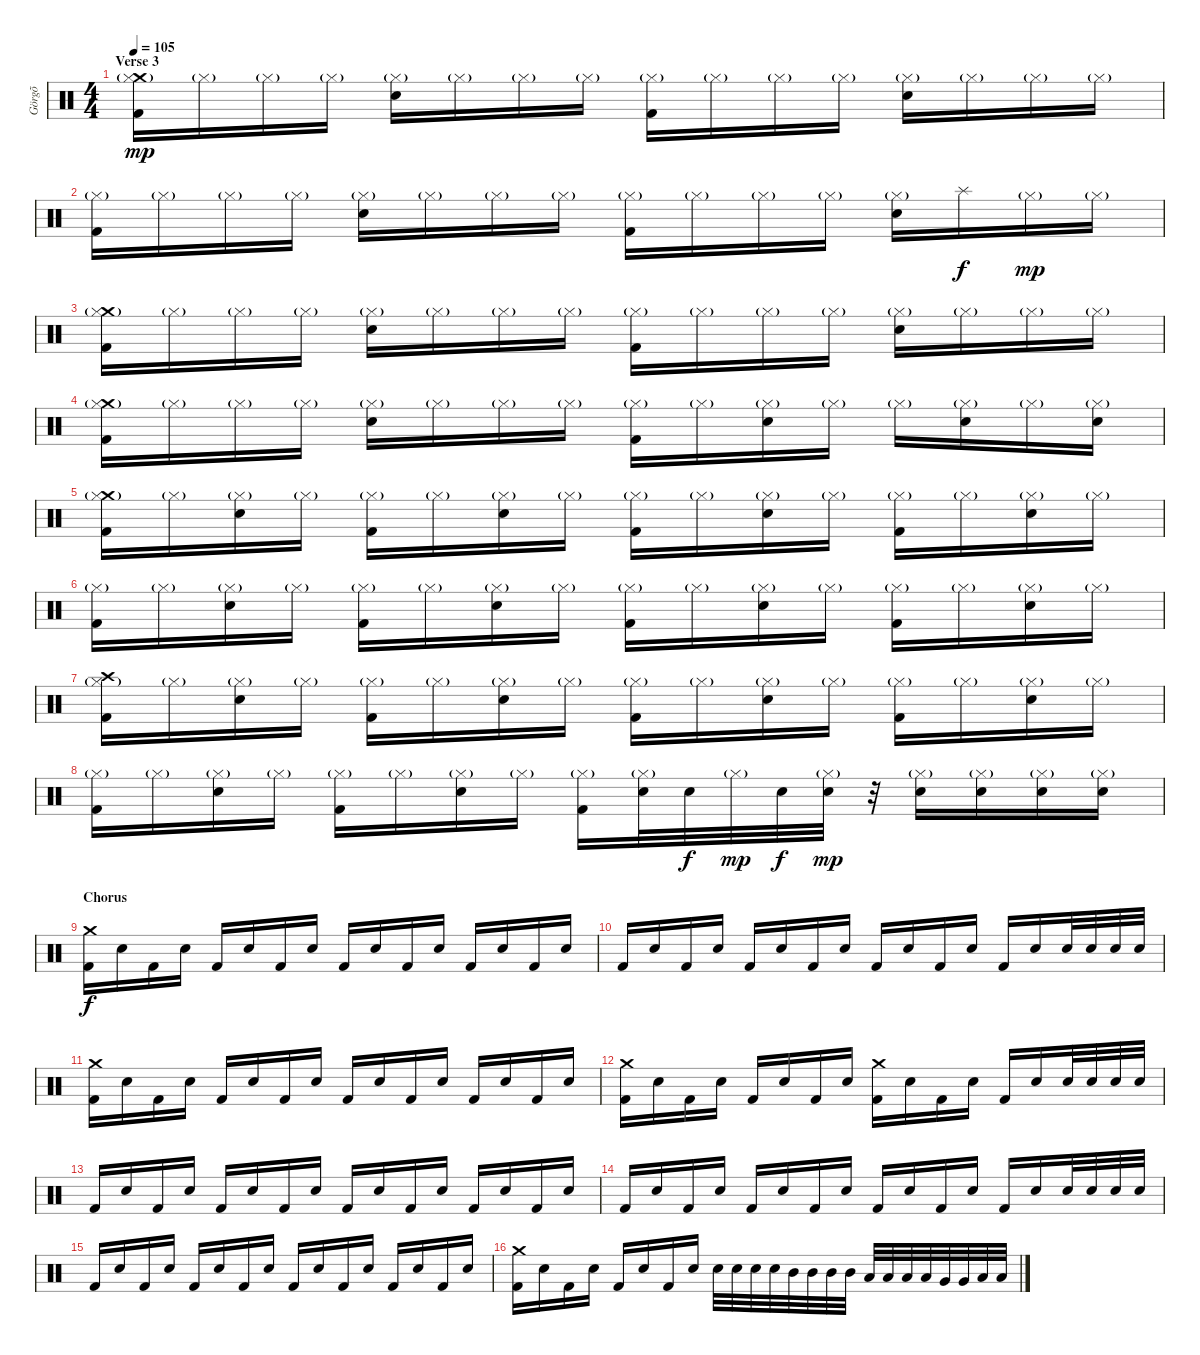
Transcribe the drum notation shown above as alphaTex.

\track ("Görgõ" "Görgõ") {instrument percussion}
\staff {score}
\articulation defaults
\ts (4 4)
\section ("" "Verse 3")
\tempo 105
\clef neutral
\ks c
("Crash medium (hit)" "Hi-Hat (closed)"{g} "Kick (hit) 2").16{dy mp} "Hi-Hat (closed)"{g}.16 "Hi-Hat (closed)"{g}.16 "Hi-Hat (closed)"{g}.16 ("Hi-Hat (closed)"{g} "Snare (hit) 2").16 "Hi-Hat (closed)"{g}.16 "Hi-Hat (closed)"{g}.16 "Hi-Hat (closed)"{g}.16 ("Hi-Hat (closed)"{g} "Kick (hit) 2").16 "Hi-Hat (closed)"{g}.16 "Hi-Hat (closed)"{g}.16 "Hi-Hat (closed)"{g}.16 ("Hi-Hat (closed)"{g} "Snare (hit) 2").16 "Hi-Hat (closed)"{g}.16 "Hi-Hat (closed)"{g}.16 "Hi-Hat (closed)"{g}.16 |
("Hi-Hat (closed)"{g} "Kick (hit) 2").16 "Hi-Hat (closed)"{g}.16 "Hi-Hat (closed)"{g}.16 "Hi-Hat (closed)"{g}.16 ("Hi-Hat (closed)"{g} "Snare (hit) 2").16 "Hi-Hat (closed)"{g}.16 "Hi-Hat (closed)"{g}.16 "Hi-Hat (closed)"{g}.16 ("Hi-Hat (closed)"{g} "Kick (hit) 2").16 "Hi-Hat (closed)"{g}.16 "Hi-Hat (closed)"{g}.16 "Hi-Hat (closed)"{g}.16 ("Hi-Hat (closed)"{g} "Snare (hit) 2").16 "Splash (hit)".16{dy f} "Hi-Hat (closed)"{g}.16{dy mp} "Hi-Hat (closed)"{g}.16 |
("Crash medium (hit)" "Hi-Hat (closed)"{g} "Kick (hit) 2").16 "Hi-Hat (closed)"{g}.16 "Hi-Hat (closed)"{g}.16 "Hi-Hat (closed)"{g}.16 ("Hi-Hat (closed)"{g} "Snare (hit) 2").16 "Hi-Hat (closed)"{g}.16 "Hi-Hat (closed)"{g}.16 "Hi-Hat (closed)"{g}.16 ("Hi-Hat (closed)"{g} "Kick (hit) 2").16 "Hi-Hat (closed)"{g}.16 "Hi-Hat (closed)"{g}.16 "Hi-Hat (closed)"{g}.16 ("Hi-Hat (closed)"{g} "Snare (hit) 2").16 "Hi-Hat (closed)"{g}.16 "Hi-Hat (closed)"{g}.16 "Hi-Hat (closed)"{g}.16 |
("Crash medium (hit)" "Hi-Hat (closed)"{g} "Kick (hit) 2").16 "Hi-Hat (closed)"{g}.16 "Hi-Hat (closed)"{g}.16 "Hi-Hat (closed)"{g}.16 ("Hi-Hat (closed)"{g} "Snare (hit) 2").16 "Hi-Hat (closed)"{g}.16 "Hi-Hat (closed)"{g}.16 "Hi-Hat (closed)"{g}.16 ("Hi-Hat (closed)"{g} "Kick (hit) 2").16 "Hi-Hat (closed)"{g}.16 ("Hi-Hat (closed)"{g} "Snare (hit) 2").16 "Hi-Hat (closed)"{g}.16 "Hi-Hat (closed)"{g}.16 ("Hi-Hat (closed)"{g} "Snare (hit) 2").16 "Hi-Hat (closed)"{g}.16 ("Hi-Hat (closed)"{g} "Snare (hit) 2").16 |
("Crash medium (hit)" "Hi-Hat (closed)"{g} "Kick (hit) 2").16 "Hi-Hat (closed)"{g}.16 ("Hi-Hat (closed)"{g} "Snare (hit) 2").16 "Hi-Hat (closed)"{g}.16 ("Hi-Hat (closed)"{g} "Kick (hit) 2").16 "Hi-Hat (closed)"{g}.16 ("Hi-Hat (closed)"{g} "Snare (hit) 2").16 "Hi-Hat (closed)"{g}.16 ("Hi-Hat (closed)"{g} "Kick (hit) 2").16 "Hi-Hat (closed)"{g}.16 ("Hi-Hat (closed)"{g} "Snare (hit) 2").16 "Hi-Hat (closed)"{g}.16 ("Hi-Hat (closed)"{g} "Kick (hit) 2").16 "Hi-Hat (closed)"{g}.16 ("Hi-Hat (closed)"{g} "Snare (hit) 2").16 "Hi-Hat (closed)"{g}.16 |
("Hi-Hat (closed)"{g} "Kick (hit) 2").16 "Hi-Hat (closed)"{g}.16 ("Hi-Hat (closed)"{g} "Snare (hit) 2").16 "Hi-Hat (closed)"{g}.16 ("Hi-Hat (closed)"{g} "Kick (hit) 2").16 "Hi-Hat (closed)"{g}.16 ("Hi-Hat (closed)"{g} "Snare (hit) 2").16 "Hi-Hat (closed)"{g}.16 ("Hi-Hat (closed)"{g} "Kick (hit) 2").16 "Hi-Hat (closed)"{g}.16 ("Hi-Hat (closed)"{g} "Snare (hit) 2").16 "Hi-Hat (closed)"{g}.16 ("Hi-Hat (closed)"{g} "Kick (hit) 2").16 "Hi-Hat (closed)"{g}.16 ("Hi-Hat (closed)"{g} "Snare (hit) 2").16 "Hi-Hat (closed)"{g}.16 |
("Crash high (hit)" "Hi-Hat (closed)"{g} "Kick (hit) 2").16 "Hi-Hat (closed)"{g}.16 ("Hi-Hat (closed)"{g} "Snare (hit) 2").16 "Hi-Hat (closed)"{g}.16 ("Hi-Hat (closed)"{g} "Kick (hit) 2").16 "Hi-Hat (closed)"{g}.16 ("Hi-Hat (closed)"{g} "Snare (hit) 2").16 "Hi-Hat (closed)"{g}.16 ("Hi-Hat (closed)"{g} "Kick (hit) 2").16 "Hi-Hat (closed)"{g}.16 ("Hi-Hat (closed)"{g} "Snare (hit) 2").16 "Hi-Hat (closed)"{g}.16 ("Hi-Hat (closed)"{g} "Kick (hit) 2").16 "Hi-Hat (closed)"{g}.16 ("Hi-Hat (closed)"{g} "Snare (hit) 2").16 "Hi-Hat (closed)"{g}.16 |
("Hi-Hat (closed)"{g} "Kick (hit) 2").16 "Hi-Hat (closed)"{g}.16 ("Hi-Hat (closed)"{g} "Snare (hit) 2").16 "Hi-Hat (closed)"{g}.16 ("Hi-Hat (closed)"{g} "Kick (hit) 2").16 "Hi-Hat (closed)"{g}.16 ("Hi-Hat (closed)"{g} "Snare (hit) 2").16 "Hi-Hat (closed)"{g}.16 ("Hi-Hat (closed)"{g} "Kick (hit) 2").16 ("Hi-Hat (closed)"{g} "Snare (hit) 2").32 "Snare (hit) 2".32{dy f} "Hi-Hat (closed)"{g}.32{dy mp} "Snare (hit) 2".32{dy f} ("Hi-Hat (closed)"{g} "Snare (hit) 2").32{dy mp} r.32 ("Hi-Hat (closed)"{g} "Snare (hit) 2").16 ("Hi-Hat (closed)"{g} "Snare (hit) 2").16 ("Hi-Hat (closed)"{g} "Snare (hit) 2").16 ("Hi-Hat (closed)"{g} "Snare (hit) 2").16 |
\section ("" "Chorus")
("Crash medium (hit)" "Kick (hit) 2").16{dy f} "Snare (hit) 2".16 "Kick (hit) 2".16 "Snare (hit) 2".16 "Kick (hit) 2".16 "Snare (hit) 2".16 "Kick (hit) 2".16 "Snare (hit) 2".16 "Kick (hit) 2".16 "Snare (hit) 2".16 "Kick (hit) 2".16 "Snare (hit) 2".16 "Kick (hit) 2".16 "Snare (hit) 2".16 "Kick (hit) 2".16 "Snare (hit) 2".16 |
"Kick (hit) 2".16 "Snare (hit) 2".16 "Kick (hit) 2".16 "Snare (hit) 2".16 "Kick (hit) 2".16 "Snare (hit) 2".16 "Kick (hit) 2".16 "Snare (hit) 2".16 "Kick (hit) 2".16 "Snare (hit) 2".16 "Kick (hit) 2".16 "Snare (hit) 2".16 "Kick (hit) 2".16 "Snare (hit) 2".16 "Snare (hit) 2".32 "Snare (hit) 2".32 "Snare (hit) 2".32 "Snare (hit) 2".32 |
("Crash medium (hit)" "Kick (hit) 2").16 "Snare (hit) 2".16 "Kick (hit) 2".16 "Snare (hit) 2".16 "Kick (hit) 2".16 "Snare (hit) 2".16 "Kick (hit) 2".16 "Snare (hit) 2".16 "Kick (hit) 2".16 "Snare (hit) 2".16 "Kick (hit) 2".16 "Snare (hit) 2".16 "Kick (hit) 2".16 "Snare (hit) 2".16 "Kick (hit) 2".16 "Snare (hit) 2".16 |
("Crash medium (hit)" "Kick (hit) 2").16 "Snare (hit) 2".16 "Kick (hit) 2".16 "Snare (hit) 2".16 "Kick (hit) 2".16 "Snare (hit) 2".16 "Kick (hit) 2".16 "Snare (hit) 2".16 ("Crash medium (hit)" "Kick (hit) 2").16 "Snare (hit) 2".16 "Kick (hit) 2".16 "Snare (hit) 2".16 "Kick (hit) 2".16 "Snare (hit) 2".16 "Snare (hit) 2".32 "Snare (hit) 2".32 "Snare (hit) 2".32 "Snare (hit) 2".32 |
"Kick (hit) 2".16 "Snare (hit) 2".16 "Kick (hit) 2".16 "Snare (hit) 2".16 "Kick (hit) 2".16 "Snare (hit) 2".16 "Kick (hit) 2".16 "Snare (hit) 2".16 "Kick (hit) 2".16 "Snare (hit) 2".16 "Kick (hit) 2".16 "Snare (hit) 2".16 "Kick (hit) 2".16 "Snare (hit) 2".16 "Kick (hit) 2".16 "Snare (hit) 2".16 |
"Kick (hit) 2".16 "Snare (hit) 2".16 "Kick (hit) 2".16 "Snare (hit) 2".16 "Kick (hit) 2".16 "Snare (hit) 2".16 "Kick (hit) 2".16 "Snare (hit) 2".16 "Kick (hit) 2".16 "Snare (hit) 2".16 "Kick (hit) 2".16 "Snare (hit) 2".16 "Kick (hit) 2".16 "Snare (hit) 2".16 "Snare (hit) 2".32 "Snare (hit) 2".32 "Snare (hit) 2".32 "Snare (hit) 2".32 |
"Kick (hit) 2".16 "Snare (hit) 2".16 "Kick (hit) 2".16 "Snare (hit) 2".16 "Kick (hit) 2".16 "Snare (hit) 2".16 "Kick (hit) 2".16 "Snare (hit) 2".16 "Kick (hit) 2".16 "Snare (hit) 2".16 "Kick (hit) 2".16 "Snare (hit) 2".16 "Kick (hit) 2".16 "Snare (hit) 2".16 "Kick (hit) 2".16 "Snare (hit) 2".16 |
("Crash medium (hit)" "Kick (hit) 2").16 "Snare (hit) 2".16 "Kick (hit) 2".16 "Snare (hit) 2".16 "Kick (hit) 2".16 "Snare (hit) 2".16 "Kick (hit) 2".16 "Snare (hit) 2".16 "Snare (hit) 2".32 "Snare (hit) 2".32 "Snare (hit) 2".32 "Snare (hit) 2".32 "Mid Tom (hit)".32 "Mid Tom (hit)".32 "Mid Tom (hit)".32 "Mid Tom (hit)".32 "Low Tom (hit)".32 "Low Tom (hit)".32 "Low Tom (hit)".32 "Low Tom (hit)".32 "Very Low Tom (hit)".32 "Very Low Tom (hit)".32 "Low Floor Tom (hit)".32 "Low Floor Tom (hit)".32
